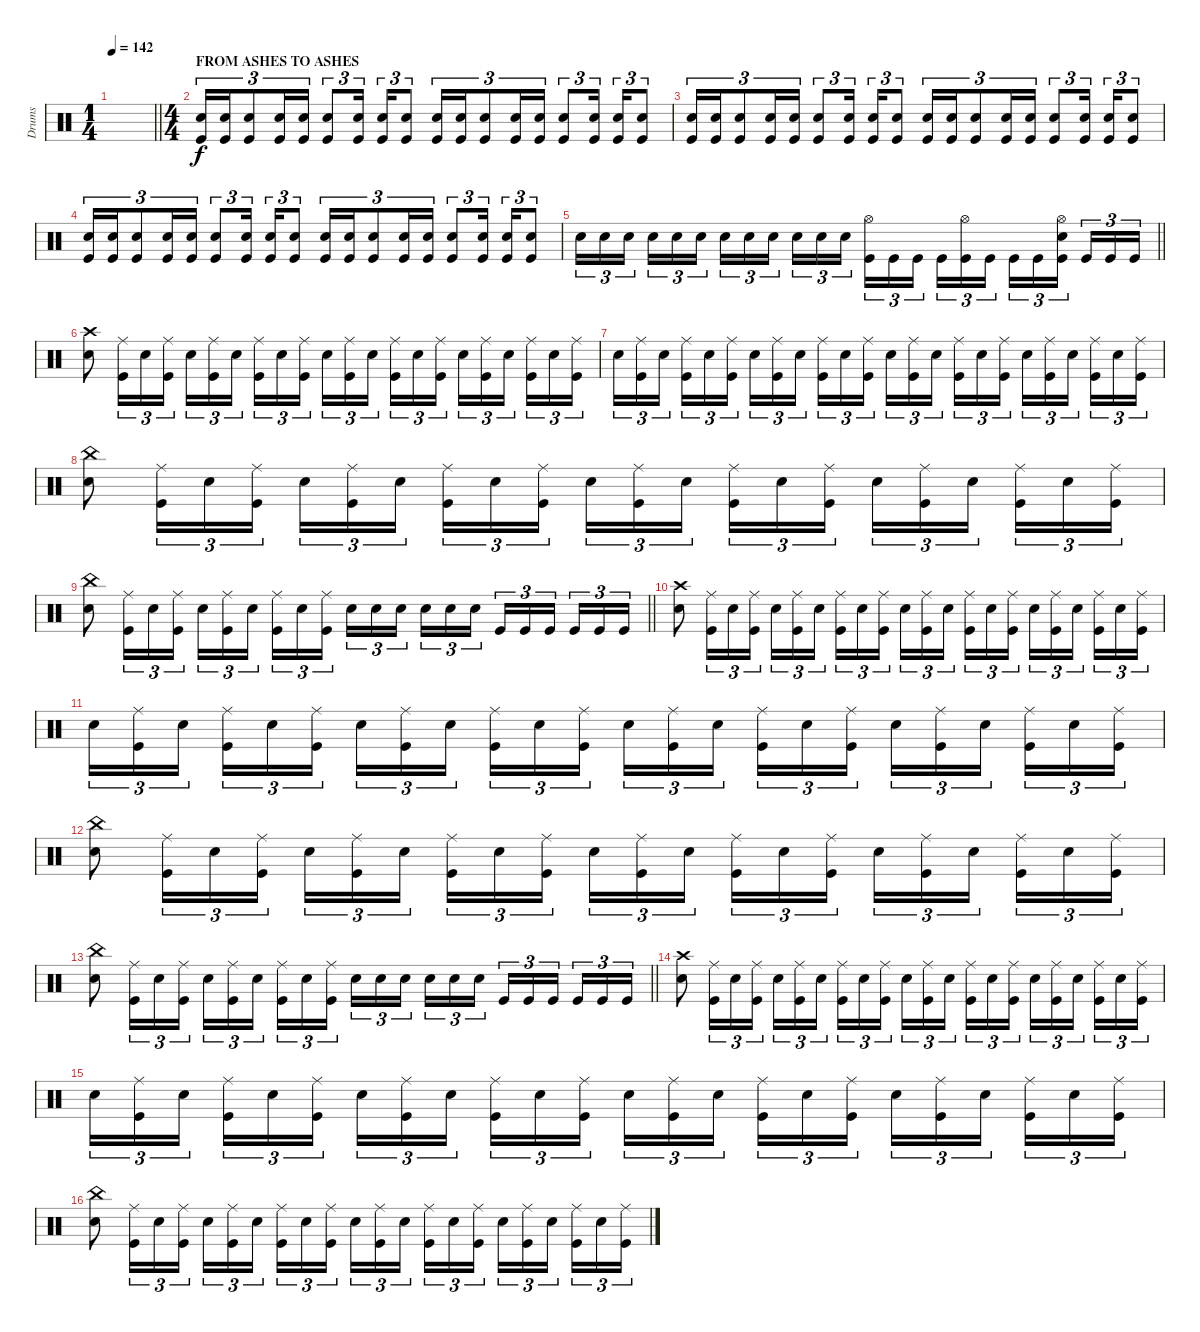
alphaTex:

\track ("Drums" "Drums") {instrument percussion}
\staff
\articulation defaults
\ts (1 4)
\tempo 142
\clef neutral
\barLineRight lightlight
\ks c
|
\ts (4 4)
\section ("" "FROM ASHES TO ASHES")
("Electric Snare (hit)" "Kick (hit)").16{tu (3 2)} ("Electric Snare (hit)" "Kick (hit)").16{tu (3 2)} ("Electric Snare (hit)" "Kick (hit)").8{tu (3 2)} ("Electric Snare (hit)" "Kick (hit)").16{tu (3 2)} ("Electric Snare (hit)" "Kick (hit)").16{tu (3 2)} ("Electric Snare (hit)" "Kick (hit)").8{tu (3 2)} ("Electric Snare (hit)" "Kick (hit)").16{tu (3 2) beam splitsecondary} ("Electric Snare (hit)" "Kick (hit)").16{tu (3 2)} ("Electric Snare (hit)" "Kick (hit)").8{tu (3 2)} ("Electric Snare (hit)" "Kick (hit)").16{tu (3 2)} ("Electric Snare (hit)" "Kick (hit)").16{tu (3 2)} ("Electric Snare (hit)" "Kick (hit)").8{tu (3 2)} ("Electric Snare (hit)" "Kick (hit)").16{tu (3 2)} ("Electric Snare (hit)" "Kick (hit)").16{tu (3 2)} ("Electric Snare (hit)" "Kick (hit)").8{tu (3 2)} ("Electric Snare (hit)" "Kick (hit)").16{tu (3 2) beam splitsecondary} ("Electric Snare (hit)" "Kick (hit)").16{tu (3 2)} ("Electric Snare (hit)" "Kick (hit)").8{tu (3 2)} |
("Electric Snare (hit)" "Kick (hit)").16{tu (3 2)} ("Electric Snare (hit)" "Kick (hit)").16{tu (3 2)} ("Electric Snare (hit)" "Kick (hit)").8{tu (3 2)} ("Electric Snare (hit)" "Kick (hit)").16{tu (3 2)} ("Electric Snare (hit)" "Kick (hit)").16{tu (3 2)} ("Electric Snare (hit)" "Kick (hit)").8{tu (3 2)} ("Electric Snare (hit)" "Kick (hit)").16{tu (3 2) beam splitsecondary} ("Electric Snare (hit)" "Kick (hit)").16{tu (3 2)} ("Electric Snare (hit)" "Kick (hit)").8{tu (3 2)} ("Electric Snare (hit)" "Kick (hit)").16{tu (3 2)} ("Electric Snare (hit)" "Kick (hit)").16{tu (3 2)} ("Electric Snare (hit)" "Kick (hit)").8{tu (3 2)} ("Electric Snare (hit)" "Kick (hit)").16{tu (3 2)} ("Electric Snare (hit)" "Kick (hit)").16{tu (3 2)} ("Electric Snare (hit)" "Kick (hit)").8{tu (3 2)} ("Electric Snare (hit)" "Kick (hit)").16{tu (3 2) beam splitsecondary} ("Electric Snare (hit)" "Kick (hit)").16{tu (3 2)} ("Electric Snare (hit)" "Kick (hit)").8{tu (3 2)} |
("Electric Snare (hit)" "Kick (hit)").16{tu (3 2)} ("Electric Snare (hit)" "Kick (hit)").16{tu (3 2)} ("Electric Snare (hit)" "Kick (hit)").8{tu (3 2)} ("Electric Snare (hit)" "Kick (hit)").16{tu (3 2)} ("Electric Snare (hit)" "Kick (hit)").16{tu (3 2)} ("Electric Snare (hit)" "Kick (hit)").8{tu (3 2)} ("Electric Snare (hit)" "Kick (hit)").16{tu (3 2) beam splitsecondary} ("Electric Snare (hit)" "Kick (hit)").16{tu (3 2)} ("Electric Snare (hit)" "Kick (hit)").8{tu (3 2)} ("Electric Snare (hit)" "Kick (hit)").16{tu (3 2)} ("Electric Snare (hit)" "Kick (hit)").16{tu (3 2)} ("Electric Snare (hit)" "Kick (hit)").8{tu (3 2)} ("Electric Snare (hit)" "Kick (hit)").16{tu (3 2)} ("Electric Snare (hit)" "Kick (hit)").16{tu (3 2)} ("Electric Snare (hit)" "Kick (hit)").8{tu (3 2)} ("Electric Snare (hit)" "Kick (hit)").16{tu (3 2) beam splitsecondary} ("Electric Snare (hit)" "Kick (hit)").16{tu (3 2)} ("Electric Snare (hit)" "Kick (hit)").8{tu (3 2)} |
\barLineRight lightlight "Electric Snare (hit)".16{tu (3 2)} "Electric Snare (hit)".16{tu (3 2)} "Electric Snare (hit)".16{tu (3 2) beam splitsecondary} "Electric Snare (hit)".16{tu (3 2)} "Electric Snare (hit)".16{tu (3 2)} "Electric Snare (hit)".16{tu (3 2)} "Electric Snare (hit)".16{tu (3 2)} "Electric Snare (hit)".16{tu (3 2)} "Electric Snare (hit)".16{tu (3 2) beam splitsecondary} "Electric Snare (hit)".16{tu (3 2)} "Electric Snare (hit)".16{tu (3 2)} "Electric Snare (hit)".16{tu (3 2)}
("Hi-Hat (open)" "Kick (hit)").16{tu (3 2)} "Kick (hit)".16{tu (3 2)} "Kick (hit)".16{tu (3 2) beam splitsecondary} "Kick (hit)".16{tu (3 2)} ("Hi-Hat (open)" "Kick (hit)").16{tu (3 2)} "Kick (hit)".16{tu (3 2)} "Kick (hit)".16{tu (3 2)} "Kick (hit)".16{tu (3 2)} ("Hi-Hat (open)" "Electric Snare (hit)" "Kick (hit)").16{tu (3 2) beam splitsecondary} "Kick (hit)".16{tu (3 2)} "Kick (hit)".16{tu (3 2)} "Kick (hit)".16{tu (3 2)} |
("Crash high (hit)" "Electric Snare (hit)").8 ("Ride (middle)" "Kick (hit)").16{tu (3 2)} "Electric Snare (hit)".16{tu (3 2)} ("Ride (middle)" "Kick (hit)").16{tu (3 2)} "Electric Snare (hit)".16{tu (3 2)} ("Ride (middle)" "Kick (hit)").16{tu (3 2)} "Electric Snare (hit)".16{tu (3 2) beam splitsecondary} ("Ride (middle)" "Kick (hit)").16{tu (3 2)} "Electric Snare (hit)".16{tu (3 2)} ("Ride (middle)" "Kick (hit)").16{tu (3 2)} "Electric Snare (hit)".16{tu (3 2)} ("Ride (middle)" "Kick (hit)").16{tu (3 2)} "Electric Snare (hit)".16{tu (3 2) beam splitsecondary} ("Ride (middle)" "Kick (hit)").16{tu (3 2)} "Electric Snare (hit)".16{tu (3 2)} ("Ride (middle)" "Kick (hit)").16{tu (3 2)} "Electric Snare (hit)".16{tu (3 2)} ("Ride (middle)" "Kick (hit)").16{tu (3 2)} "Electric Snare (hit)".16{tu (3 2) beam splitsecondary} ("Ride (middle)" "Kick (hit)").16{tu (3 2)} "Electric Snare (hit)".16{tu (3 2)} ("Ride (middle)" "Kick (hit)").16{tu (3 2)} |
"Electric Snare (hit)".16{tu (3 2)} ("Ride (middle)" "Kick (hit)").16{tu (3 2)} "Electric Snare (hit)".16{tu (3 2) beam splitsecondary} ("Ride (middle)" "Kick (hit)").16{tu (3 2)} "Electric Snare (hit)".16{tu (3 2)} ("Ride (middle)" "Kick (hit)").16{tu (3 2)} "Electric Snare (hit)".16{tu (3 2)} ("Ride (middle)" "Kick (hit)").16{tu (3 2)} "Electric Snare (hit)".16{tu (3 2) beam splitsecondary} ("Ride (middle)" "Kick (hit)").16{tu (3 2)} "Electric Snare (hit)".16{tu (3 2)} ("Ride (middle)" "Kick (hit)").16{tu (3 2)} "Electric Snare (hit)".16{tu (3 2)} ("Ride (middle)" "Kick (hit)").16{tu (3 2)} "Electric Snare (hit)".16{tu (3 2) beam splitsecondary} ("Ride (middle)" "Kick (hit)").16{tu (3 2)} "Electric Snare (hit)".16{tu (3 2)} ("Ride (middle)" "Kick (hit)").16{tu (3 2)} "Electric Snare (hit)".16{tu (3 2)} ("Ride (middle)" "Kick (hit)").16{tu (3 2)} "Electric Snare (hit)".16{tu (3 2) beam splitsecondary} ("Ride (middle)" "Kick (hit)").16{tu (3 2)} "Electric Snare (hit)".16{tu (3 2)} ("Ride (middle)" "Kick (hit)").16{tu (3 2)} |
("China (hit)" "Electric Snare (hit)").8 ("Ride (middle)" "Kick (hit)").16{tu (3 2)} "Electric Snare (hit)".16{tu (3 2)} ("Ride (middle)" "Kick (hit)").16{tu (3 2)} "Electric Snare (hit)".16{tu (3 2)} ("Ride (middle)" "Kick (hit)").16{tu (3 2)} "Electric Snare (hit)".16{tu (3 2) beam splitsecondary} ("Ride (middle)" "Kick (hit)").16{tu (3 2)} "Electric Snare (hit)".16{tu (3 2)} ("Ride (middle)" "Kick (hit)").16{tu (3 2)} "Electric Snare (hit)".16{tu (3 2)} ("Ride (middle)" "Kick (hit)").16{tu (3 2)} "Electric Snare (hit)".16{tu (3 2) beam splitsecondary} ("Ride (middle)" "Kick (hit)").16{tu (3 2)} "Electric Snare (hit)".16{tu (3 2)} ("Ride (middle)" "Kick (hit)").16{tu (3 2)} "Electric Snare (hit)".16{tu (3 2)} ("Ride (middle)" "Kick (hit)").16{tu (3 2)} "Electric Snare (hit)".16{tu (3 2) beam splitsecondary} ("Ride (middle)" "Kick (hit)").16{tu (3 2)} "Electric Snare (hit)".16{tu (3 2)} ("Ride (middle)" "Kick (hit)").16{tu (3 2)} |
\barLineRight lightlight
("China (hit)" "Electric Snare (hit)").8 ("Ride (middle)" "Kick (hit)").16{tu (3 2)} "Electric Snare (hit)".16{tu (3 2)} ("Ride (middle)" "Kick (hit)").16{tu (3 2)} "Electric Snare (hit)".16{tu (3 2)} ("Ride (middle)" "Kick (hit)").16{tu (3 2)} "Electric Snare (hit)".16{tu (3 2) beam splitsecondary} ("Ride (middle)" "Kick (hit)").16{tu (3 2)} "Electric Snare (hit)".16{tu (3 2)} ("Ride (middle)" "Kick (hit)").16{tu (3 2)} "Electric Snare (hit)".16{tu (3 2)} "Electric Snare (hit)".16{tu (3 2)} "Electric Snare (hit)".16{tu (3 2) beam splitsecondary} "Electric Snare (hit)".16{tu (3 2)} "Electric Snare (hit)".16{tu (3 2)} "Electric Snare (hit)".16{tu (3 2)} "Kick (hit)".16{tu (3 2)} "Kick (hit)".16{tu (3 2)} "Kick (hit)".16{tu (3 2) beam splitsecondary} "Kick (hit)".16{tu (3 2)} "Kick (hit)".16{tu (3 2)} "Kick (hit)".16{tu (3 2)} |
("Crash high (hit)" "Electric Snare (hit)").8 ("Ride (middle)" "Kick (hit)").16{tu (3 2)} "Electric Snare (hit)".16{tu (3 2)} ("Ride (middle)" "Kick (hit)").16{tu (3 2)} "Electric Snare (hit)".16{tu (3 2)} ("Ride (middle)" "Kick (hit)").16{tu (3 2)} "Electric Snare (hit)".16{tu (3 2) beam splitsecondary} ("Ride (middle)" "Kick (hit)").16{tu (3 2)} "Electric Snare (hit)".16{tu (3 2)} ("Ride (middle)" "Kick (hit)").16{tu (3 2)} "Electric Snare (hit)".16{tu (3 2)} ("Ride (middle)" "Kick (hit)").16{tu (3 2)} "Electric Snare (hit)".16{tu (3 2) beam splitsecondary} ("Ride (middle)" "Kick (hit)").16{tu (3 2)} "Electric Snare (hit)".16{tu (3 2)} ("Ride (middle)" "Kick (hit)").16{tu (3 2)} "Electric Snare (hit)".16{tu (3 2)} ("Ride (middle)" "Kick (hit)").16{tu (3 2)} "Electric Snare (hit)".16{tu (3 2) beam splitsecondary} ("Ride (middle)" "Kick (hit)").16{tu (3 2)} "Electric Snare (hit)".16{tu (3 2)} ("Ride (middle)" "Kick (hit)").16{tu (3 2)} |
"Electric Snare (hit)".16{tu (3 2)} ("Ride (middle)" "Kick (hit)").16{tu (3 2)} "Electric Snare (hit)".16{tu (3 2) beam splitsecondary} ("Ride (middle)" "Kick (hit)").16{tu (3 2)} "Electric Snare (hit)".16{tu (3 2)} ("Ride (middle)" "Kick (hit)").16{tu (3 2)} "Electric Snare (hit)".16{tu (3 2)} ("Ride (middle)" "Kick (hit)").16{tu (3 2)} "Electric Snare (hit)".16{tu (3 2) beam splitsecondary} ("Ride (middle)" "Kick (hit)").16{tu (3 2)} "Electric Snare (hit)".16{tu (3 2)} ("Ride (middle)" "Kick (hit)").16{tu (3 2)} "Electric Snare (hit)".16{tu (3 2)} ("Ride (middle)" "Kick (hit)").16{tu (3 2)} "Electric Snare (hit)".16{tu (3 2) beam splitsecondary} ("Ride (middle)" "Kick (hit)").16{tu (3 2)} "Electric Snare (hit)".16{tu (3 2)} ("Ride (middle)" "Kick (hit)").16{tu (3 2)} "Electric Snare (hit)".16{tu (3 2)} ("Ride (middle)" "Kick (hit)").16{tu (3 2)} "Electric Snare (hit)".16{tu (3 2) beam splitsecondary} ("Ride (middle)" "Kick (hit)").16{tu (3 2)} "Electric Snare (hit)".16{tu (3 2)} ("Ride (middle)" "Kick (hit)").16{tu (3 2)} |
("China (hit)" "Electric Snare (hit)").8 ("Ride (middle)" "Kick (hit)").16{tu (3 2)} "Electric Snare (hit)".16{tu (3 2)} ("Ride (middle)" "Kick (hit)").16{tu (3 2)} "Electric Snare (hit)".16{tu (3 2)} ("Ride (middle)" "Kick (hit)").16{tu (3 2)} "Electric Snare (hit)".16{tu (3 2) beam splitsecondary} ("Ride (middle)" "Kick (hit)").16{tu (3 2)} "Electric Snare (hit)".16{tu (3 2)} ("Ride (middle)" "Kick (hit)").16{tu (3 2)} "Electric Snare (hit)".16{tu (3 2)} ("Ride (middle)" "Kick (hit)").16{tu (3 2)} "Electric Snare (hit)".16{tu (3 2) beam splitsecondary} ("Ride (middle)" "Kick (hit)").16{tu (3 2)} "Electric Snare (hit)".16{tu (3 2)} ("Ride (middle)" "Kick (hit)").16{tu (3 2)} "Electric Snare (hit)".16{tu (3 2)} ("Ride (middle)" "Kick (hit)").16{tu (3 2)} "Electric Snare (hit)".16{tu (3 2) beam splitsecondary} ("Ride (middle)" "Kick (hit)").16{tu (3 2)} "Electric Snare (hit)".16{tu (3 2)} ("Ride (middle)" "Kick (hit)").16{tu (3 2)} |
\barLineRight lightlight
("China (hit)" "Electric Snare (hit)").8 ("Ride (middle)" "Kick (hit)").16{tu (3 2)} "Electric Snare (hit)".16{tu (3 2)} ("Ride (middle)" "Kick (hit)").16{tu (3 2)} "Electric Snare (hit)".16{tu (3 2)} ("Ride (middle)" "Kick (hit)").16{tu (3 2)} "Electric Snare (hit)".16{tu (3 2) beam splitsecondary} ("Ride (middle)" "Kick (hit)").16{tu (3 2)} "Electric Snare (hit)".16{tu (3 2)} ("Ride (middle)" "Kick (hit)").16{tu (3 2)} "Electric Snare (hit)".16{tu (3 2)} "Electric Snare (hit)".16{tu (3 2)} "Electric Snare (hit)".16{tu (3 2) beam splitsecondary} "Electric Snare (hit)".16{tu (3 2)} "Electric Snare (hit)".16{tu (3 2)} "Electric Snare (hit)".16{tu (3 2)} "Kick (hit)".16{tu (3 2)} "Kick (hit)".16{tu (3 2)} "Kick (hit)".16{tu (3 2) beam splitsecondary} "Kick (hit)".16{tu (3 2)} "Kick (hit)".16{tu (3 2)} "Kick (hit)".16{tu (3 2)} |
("Crash high (hit)" "Electric Snare (hit)").8 ("Ride (middle)" "Kick (hit)").16{tu (3 2)} "Electric Snare (hit)".16{tu (3 2)} ("Ride (middle)" "Kick (hit)").16{tu (3 2)} "Electric Snare (hit)".16{tu (3 2)} ("Ride (middle)" "Kick (hit)").16{tu (3 2)} "Electric Snare (hit)".16{tu (3 2) beam splitsecondary} ("Ride (middle)" "Kick (hit)").16{tu (3 2)} "Electric Snare (hit)".16{tu (3 2)} ("Ride (middle)" "Kick (hit)").16{tu (3 2)} "Electric Snare (hit)".16{tu (3 2)} ("Ride (middle)" "Kick (hit)").16{tu (3 2)} "Electric Snare (hit)".16{tu (3 2) beam splitsecondary} ("Ride (middle)" "Kick (hit)").16{tu (3 2)} "Electric Snare (hit)".16{tu (3 2)} ("Ride (middle)" "Kick (hit)").16{tu (3 2)} "Electric Snare (hit)".16{tu (3 2)} ("Ride (middle)" "Kick (hit)").16{tu (3 2)} "Electric Snare (hit)".16{tu (3 2) beam splitsecondary} ("Ride (middle)" "Kick (hit)").16{tu (3 2)} "Electric Snare (hit)".16{tu (3 2)} ("Ride (middle)" "Kick (hit)").16{tu (3 2)} |
"Electric Snare (hit)".16{tu (3 2)} ("Ride (middle)" "Kick (hit)").16{tu (3 2)} "Electric Snare (hit)".16{tu (3 2) beam splitsecondary} ("Ride (middle)" "Kick (hit)").16{tu (3 2)} "Electric Snare (hit)".16{tu (3 2)} ("Ride (middle)" "Kick (hit)").16{tu (3 2)} "Electric Snare (hit)".16{tu (3 2)} ("Ride (middle)" "Kick (hit)").16{tu (3 2)} "Electric Snare (hit)".16{tu (3 2) beam splitsecondary} ("Ride (middle)" "Kick (hit)").16{tu (3 2)} "Electric Snare (hit)".16{tu (3 2)} ("Ride (middle)" "Kick (hit)").16{tu (3 2)} "Electric Snare (hit)".16{tu (3 2)} ("Ride (middle)" "Kick (hit)").16{tu (3 2)} "Electric Snare (hit)".16{tu (3 2) beam splitsecondary} ("Ride (middle)" "Kick (hit)").16{tu (3 2)} "Electric Snare (hit)".16{tu (3 2)} ("Ride (middle)" "Kick (hit)").16{tu (3 2)} "Electric Snare (hit)".16{tu (3 2)} ("Ride (middle)" "Kick (hit)").16{tu (3 2)} "Electric Snare (hit)".16{tu (3 2) beam splitsecondary} ("Ride (middle)" "Kick (hit)").16{tu (3 2)} "Electric Snare (hit)".16{tu (3 2)} ("Ride (middle)" "Kick (hit)").16{tu (3 2)} |
("China (hit)" "Electric Snare (hit)").8 ("Ride (middle)" "Kick (hit)").16{tu (3 2)} "Electric Snare (hit)".16{tu (3 2)} ("Ride (middle)" "Kick (hit)").16{tu (3 2)} "Electric Snare (hit)".16{tu (3 2)} ("Ride (middle)" "Kick (hit)").16{tu (3 2)} "Electric Snare (hit)".16{tu (3 2) beam splitsecondary} ("Ride (middle)" "Kick (hit)").16{tu (3 2)} "Electric Snare (hit)".16{tu (3 2)} ("Ride (middle)" "Kick (hit)").16{tu (3 2)} "Electric Snare (hit)".16{tu (3 2)} ("Ride (middle)" "Kick (hit)").16{tu (3 2)} "Electric Snare (hit)".16{tu (3 2) beam splitsecondary} ("Ride (middle)" "Kick (hit)").16{tu (3 2)} "Electric Snare (hit)".16{tu (3 2)} ("Ride (middle)" "Kick (hit)").16{tu (3 2)} "Electric Snare (hit)".16{tu (3 2)} ("Ride (middle)" "Kick (hit)").16{tu (3 2)} "Electric Snare (hit)".16{tu (3 2) beam splitsecondary} ("Ride (middle)" "Kick (hit)").16{tu (3 2)} "Electric Snare (hit)".16{tu (3 2)} ("Ride (middle)" "Kick (hit)").16{tu (3 2)}
